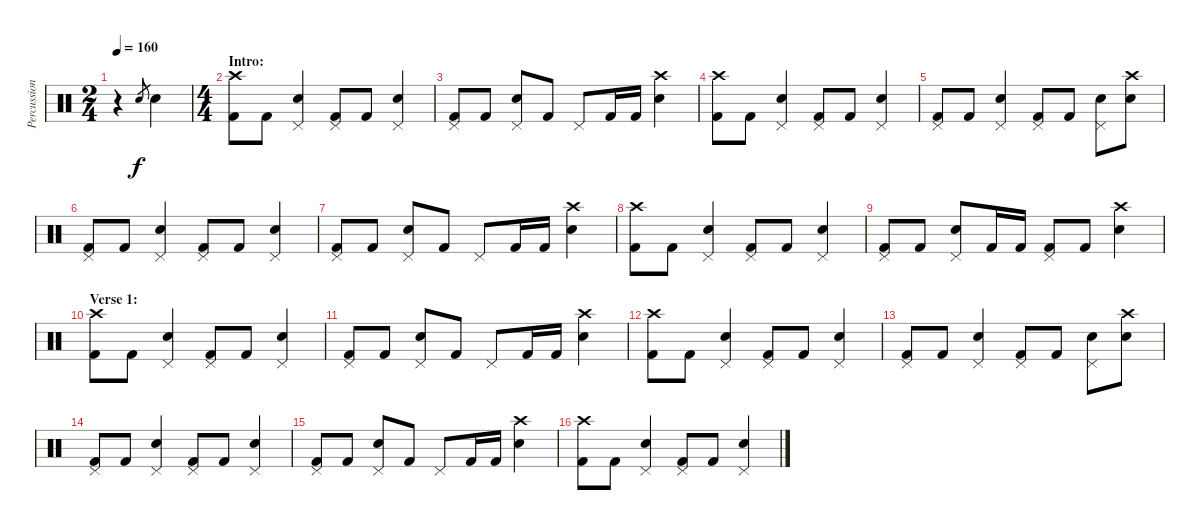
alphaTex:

\track ("Percussion" "Percussion") {instrument percussion}
\staff {score}
\articulation defaults
\ts (2 4)
\tempo 160
\clef neutral
\ks c
r.4{dy f} "Snare (hit) 2".8{gr} "Snare (hit) 2".4 |
\ts (4 4)
\section ("" "Intro:")
("Crash high (hit)" "Kick (hit) 2").8 "Kick (hit) 2".8 ("Pedal Hi-Hat (hit)" "Snare (hit) 2").4 ("Pedal Hi-Hat (hit)" "Kick (hit) 2").8 "Kick (hit) 2".8 ("Pedal Hi-Hat (hit)" "Snare (hit) 2").4 |
("Pedal Hi-Hat (hit)" "Kick (hit) 2").8 "Kick (hit) 2".8 ("Pedal Hi-Hat (hit)" "Snare (hit) 2").8 "Kick (hit) 2".8 "Pedal Hi-Hat (hit)".8 "Kick (hit) 2".16 "Kick (hit) 2".16 ("Crash high (hit)" "Snare (hit) 2").4 |
("Crash high (hit)" "Kick (hit) 2").8 "Kick (hit) 2".8 ("Pedal Hi-Hat (hit)" "Snare (hit) 2").4 ("Pedal Hi-Hat (hit)" "Kick (hit) 2").8 "Kick (hit) 2".8 ("Pedal Hi-Hat (hit)" "Snare (hit) 2").4 |
("Pedal Hi-Hat (hit)" "Kick (hit) 2").8 "Kick (hit) 2".8 ("Pedal Hi-Hat (hit)" "Snare (hit) 2").4 ("Pedal Hi-Hat (hit)" "Kick (hit) 2").8 "Kick (hit) 2".8 ("Pedal Hi-Hat (hit)" "Snare (hit) 2").8 ("Crash high (hit)" "Snare (hit) 2").8 |
("Pedal Hi-Hat (hit)" "Kick (hit) 2").8 "Kick (hit) 2".8 ("Pedal Hi-Hat (hit)" "Snare (hit) 2").4 ("Pedal Hi-Hat (hit)" "Kick (hit) 2").8 "Kick (hit) 2".8 ("Pedal Hi-Hat (hit)" "Snare (hit) 2").4 |
("Pedal Hi-Hat (hit)" "Kick (hit) 2").8 "Kick (hit) 2".8 ("Pedal Hi-Hat (hit)" "Snare (hit) 2").8 "Kick (hit) 2".8 "Pedal Hi-Hat (hit)".8 "Kick (hit) 2".16 "Kick (hit) 2".16 ("Crash high (hit)" "Snare (hit) 2").4 |
("Crash high (hit)" "Kick (hit) 2").8 "Kick (hit) 2".8 ("Pedal Hi-Hat (hit)" "Snare (hit) 2").4 ("Pedal Hi-Hat (hit)" "Kick (hit) 2").8 "Kick (hit) 2".8 ("Pedal Hi-Hat (hit)" "Snare (hit) 2").4 |
("Pedal Hi-Hat (hit)" "Kick (hit) 2").8 "Kick (hit) 2".8 ("Pedal Hi-Hat (hit)" "Snare (hit) 2").8 "Kick (hit) 2".16 "Kick (hit) 2".16 ("Pedal Hi-Hat (hit)" "Kick (hit) 2").8 "Kick (hit) 2".8 ("Crash high (hit)" "Snare (hit) 2").4 |
\section ("" "Verse 1:")
("Crash high (hit)" "Kick (hit) 2").8 "Kick (hit) 2".8 ("Pedal Hi-Hat (hit)" "Snare (hit) 2").4 ("Pedal Hi-Hat (hit)" "Kick (hit) 2").8 "Kick (hit) 2".8 ("Pedal Hi-Hat (hit)" "Snare (hit) 2").4 |
("Pedal Hi-Hat (hit)" "Kick (hit) 2").8 "Kick (hit) 2".8 ("Pedal Hi-Hat (hit)" "Snare (hit) 2").8 "Kick (hit) 2".8 "Pedal Hi-Hat (hit)".8 "Kick (hit) 2".16 "Kick (hit) 2".16 ("Crash high (hit)" "Snare (hit) 2").4 |
("Crash high (hit)" "Kick (hit) 2").8 "Kick (hit) 2".8 ("Pedal Hi-Hat (hit)" "Snare (hit) 2").4 ("Pedal Hi-Hat (hit)" "Kick (hit) 2").8 "Kick (hit) 2".8 ("Pedal Hi-Hat (hit)" "Snare (hit) 2").4 |
("Pedal Hi-Hat (hit)" "Kick (hit) 2").8 "Kick (hit) 2".8 ("Pedal Hi-Hat (hit)" "Snare (hit) 2").4 ("Pedal Hi-Hat (hit)" "Kick (hit) 2").8 "Kick (hit) 2".8 ("Pedal Hi-Hat (hit)" "Snare (hit) 2").8 ("Crash high (hit)" "Snare (hit) 2").8 |
("Pedal Hi-Hat (hit)" "Kick (hit) 2").8 "Kick (hit) 2".8 ("Pedal Hi-Hat (hit)" "Snare (hit) 2").4 ("Pedal Hi-Hat (hit)" "Kick (hit) 2").8 "Kick (hit) 2".8 ("Pedal Hi-Hat (hit)" "Snare (hit) 2").4 |
("Pedal Hi-Hat (hit)" "Kick (hit) 2").8 "Kick (hit) 2".8 ("Pedal Hi-Hat (hit)" "Snare (hit) 2").8 "Kick (hit) 2".8 "Pedal Hi-Hat (hit)".8 "Kick (hit) 2".16 "Kick (hit) 2".16 ("Crash high (hit)" "Snare (hit) 2").4 |
("Crash high (hit)" "Kick (hit) 2").8 "Kick (hit) 2".8 ("Pedal Hi-Hat (hit)" "Snare (hit) 2").4 ("Pedal Hi-Hat (hit)" "Kick (hit) 2").8 "Kick (hit) 2".8 ("Pedal Hi-Hat (hit)" "Snare (hit) 2").4
